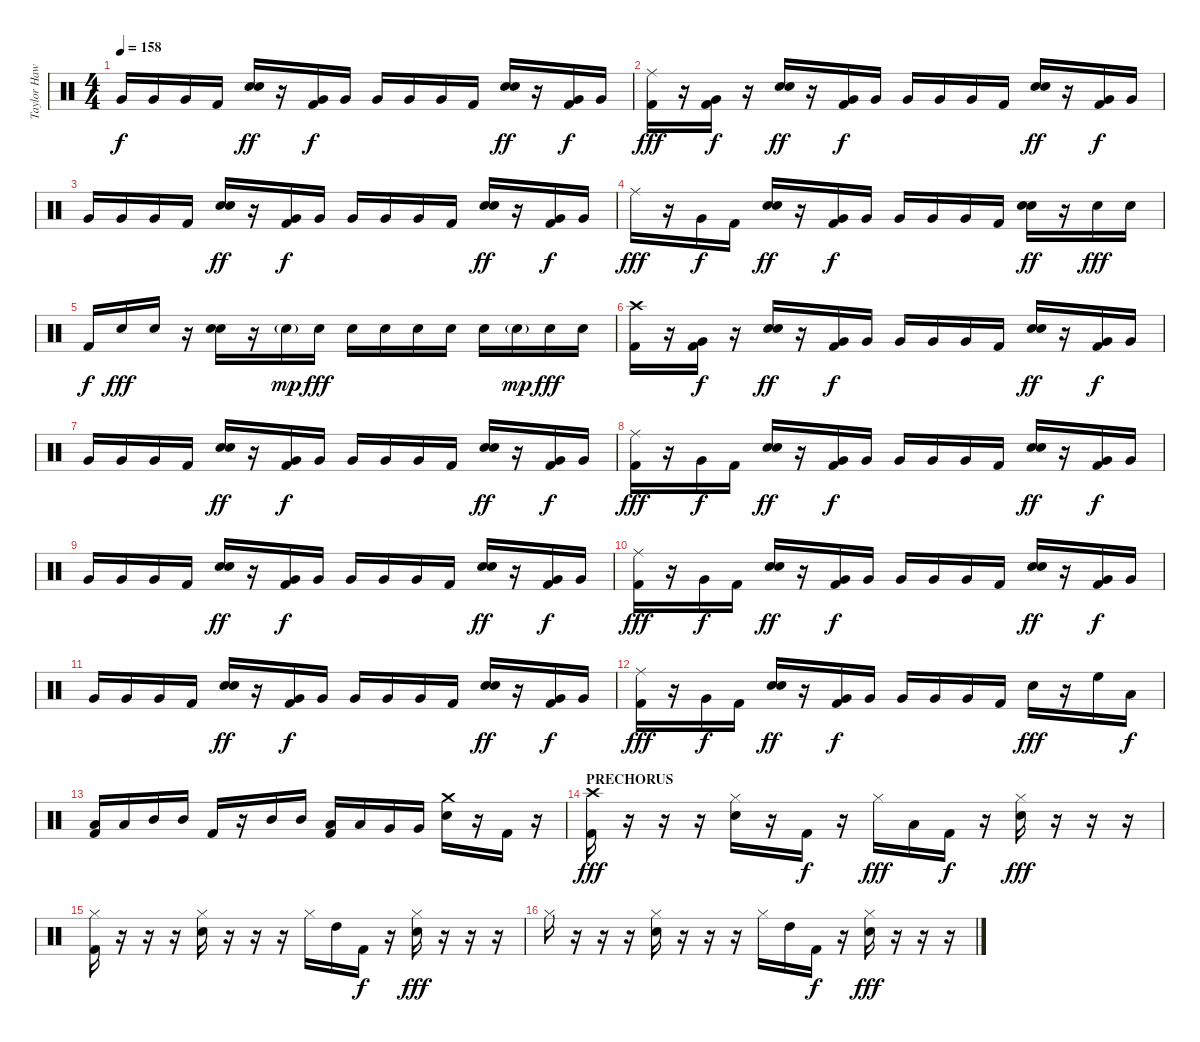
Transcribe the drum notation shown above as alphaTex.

\track ("Taylor Hawkins (Drums)" "Taylor Haw") {instrument percussion}
\staff {score}
\articulation defaults
\ts (4 4)
\tempo 158
\clef neutral
\ks c "Very Low Tom (hit)".16{dy f} "Very Low Tom (hit)".16 "Very Low Tom (hit)".16 "Kick (hit) 2".16
("Electric Snare (hit)" "Electric Snare (hit)").16{bu 120 dy ff} r.16 ("Very Low Tom (hit)" "Kick (hit) 2").16{dy f} "Very Low Tom (hit)".16 "Very Low Tom (hit)".16 "Very Low Tom (hit)".16 "Very Low Tom (hit)".16 "Kick (hit) 2".16 ("Electric Snare (hit)" "Electric Snare (hit)").16{bu 120 dy ff} r.16 ("Very Low Tom (hit)" "Kick (hit) 2").16{dy f} "Very Low Tom (hit)".16 |
("Ride (middle)" "Kick (hit) 2").16{dy fff} r.16 ("Very Low Tom (hit)" "Kick (hit) 2").16{dy f} r.16 ("Electric Snare (hit)" "Electric Snare (hit)").16{bu 120 dy ff} r.16 ("Very Low Tom (hit)" "Kick (hit) 2").16{dy f} "Very Low Tom (hit)".16 "Very Low Tom (hit)".16 "Very Low Tom (hit)".16 "Very Low Tom (hit)".16 "Kick (hit) 2".16 ("Electric Snare (hit)" "Electric Snare (hit)").16{bu 120 dy ff} r.16 ("Very Low Tom (hit)" "Kick (hit) 2").16{dy f} "Very Low Tom (hit)".16 |
"Very Low Tom (hit)".16 "Very Low Tom (hit)".16 "Very Low Tom (hit)".16 "Kick (hit) 2".16 ("Electric Snare (hit)" "Electric Snare (hit)").16{bu 120 dy ff} r.16 ("Very Low Tom (hit)" "Kick (hit) 2").16{dy f} "Very Low Tom (hit)".16 "Very Low Tom (hit)".16 "Very Low Tom (hit)".16 "Very Low Tom (hit)".16 "Kick (hit) 2".16 ("Electric Snare (hit)" "Electric Snare (hit)").16{bu 120 dy ff} r.16 ("Very Low Tom (hit)" "Kick (hit) 2").16{dy f} "Very Low Tom (hit)".16 |
"Ride (middle)".16{dy fff} r.16 "Very Low Tom (hit)".16{dy f} "Kick (hit) 2".16 ("Electric Snare (hit)" "Electric Snare (hit)").16{bu 120 dy ff} r.16 ("Very Low Tom (hit)" "Kick (hit) 2").16{dy f} "Very Low Tom (hit)".16 "Very Low Tom (hit)".16 "Very Low Tom (hit)".16 "Very Low Tom (hit)".16 "Kick (hit) 2".16 ("Electric Snare (hit)" "Electric Snare (hit)").16{bu 120 dy ff} r.16 "Electric Snare (hit)".16{dy fff} "Electric Snare (hit)".16 |
"Kick (hit) 2".16{dy f} "Electric Snare (hit)".16{dy fff} "Electric Snare (hit)".16 r.16 ("Electric Snare (hit)" "Electric Snare (hit)").16{bu 120} r.16 "Electric Snare (hit)"{g}.16{dy mp} "Electric Snare (hit)".16{dy fff} "Electric Snare (hit)".16 "Electric Snare (hit)".16 "Electric Snare (hit)".16 "Electric Snare (hit)".16 "Electric Snare (hit)".16 "Electric Snare (hit)"{g}.16{dy mp} "Electric Snare (hit)".16{dy fff} "Electric Snare (hit)".16 |
("Crash high (hit)" "Kick (hit) 2").16 r.16 ("Very Low Tom (hit)" "Kick (hit) 2").16{dy f} r.16 ("Electric Snare (hit)" "Electric Snare (hit)").16{bu 120 dy ff} r.16 ("Very Low Tom (hit)" "Kick (hit) 2").16{dy f} "Very Low Tom (hit)".16 "Very Low Tom (hit)".16 "Very Low Tom (hit)".16 "Very Low Tom (hit)".16 "Kick (hit) 2".16 ("Electric Snare (hit)" "Electric Snare (hit)").16{bu 120 dy ff} r.16 ("Very Low Tom (hit)" "Kick (hit) 2").16{dy f} "Very Low Tom (hit)".16 |
"Very Low Tom (hit)".16 "Very Low Tom (hit)".16 "Very Low Tom (hit)".16 "Kick (hit) 2".16 ("Electric Snare (hit)" "Electric Snare (hit)").16{bu 120 dy ff} r.16 ("Very Low Tom (hit)" "Kick (hit) 2").16{dy f} "Very Low Tom (hit)".16 "Very Low Tom (hit)".16 "Very Low Tom (hit)".16 "Very Low Tom (hit)".16 "Kick (hit) 2".16 ("Electric Snare (hit)" "Electric Snare (hit)").16{bu 120 dy ff} r.16 ("Very Low Tom (hit)" "Kick (hit) 2").16{dy f} "Very Low Tom (hit)".16 |
("Ride (middle)" "Kick (hit) 2").16{dy fff} r.16 "Very Low Tom (hit)".16{dy f} "Kick (hit) 2".16 ("Electric Snare (hit)" "Electric Snare (hit)").16{bu 120 dy ff} r.16 ("Very Low Tom (hit)" "Kick (hit) 2").16{dy f} "Very Low Tom (hit)".16 "Very Low Tom (hit)".16 "Very Low Tom (hit)".16 "Very Low Tom (hit)".16 "Kick (hit) 2".16 ("Electric Snare (hit)" "Electric Snare (hit)").16{bu 120 dy ff} r.16 ("Very Low Tom (hit)" "Kick (hit) 2").16{dy f} "Very Low Tom (hit)".16 |
"Very Low Tom (hit)".16 "Very Low Tom (hit)".16 "Very Low Tom (hit)".16 "Kick (hit) 2".16 ("Electric Snare (hit)" "Electric Snare (hit)").16{bu 120 dy ff} r.16 ("Very Low Tom (hit)" "Kick (hit) 2").16{dy f} "Very Low Tom (hit)".16 "Very Low Tom (hit)".16 "Very Low Tom (hit)".16 "Very Low Tom (hit)".16 "Kick (hit) 2".16 ("Electric Snare (hit)" "Electric Snare (hit)").16{bu 120 dy ff} r.16 ("Very Low Tom (hit)" "Kick (hit) 2").16{dy f} "Very Low Tom (hit)".16 |
("Ride (middle)" "Kick (hit) 2").16{dy fff} r.16 "Very Low Tom (hit)".16{dy f} "Kick (hit) 2".16 ("Electric Snare (hit)" "Electric Snare (hit)").16{bu 120 dy ff} r.16 ("Very Low Tom (hit)" "Kick (hit) 2").16{dy f} "Very Low Tom (hit)".16 "Very Low Tom (hit)".16 "Very Low Tom (hit)".16 "Very Low Tom (hit)".16 "Kick (hit) 2".16 ("Electric Snare (hit)" "Electric Snare (hit)").16{bu 120 dy ff} r.16 ("Very Low Tom (hit)" "Kick (hit) 2").16{dy f} "Very Low Tom (hit)".16 |
"Very Low Tom (hit)".16 "Very Low Tom (hit)".16 "Very Low Tom (hit)".16 "Kick (hit) 2".16 ("Electric Snare (hit)" "Electric Snare (hit)").16{bu 120 dy ff} r.16 ("Very Low Tom (hit)" "Kick (hit) 2").16{dy f} "Very Low Tom (hit)".16 "Very Low Tom (hit)".16 "Very Low Tom (hit)".16 "Very Low Tom (hit)".16 "Kick (hit) 2".16 ("Electric Snare (hit)" "Electric Snare (hit)").16{bu 120 dy ff} r.16 ("Very Low Tom (hit)" "Kick (hit) 2").16{dy f} "Very Low Tom (hit)".16 |
("Ride (middle)" "Kick (hit) 2").16{dy fff} r.16 "Very Low Tom (hit)".16{dy f} "Kick (hit) 2".16 ("Electric Snare (hit)" "Electric Snare (hit)").16{bu 120 dy ff} r.16 ("Very Low Tom (hit)" "Kick (hit) 2").16{dy f} "Very Low Tom (hit)".16 "Very Low Tom (hit)".16 "Very Low Tom (hit)".16 "Very Low Tom (hit)".16 "Kick (hit) 2".16 "Electric Snare (hit)".16{dy fff} r.16 "High Floor Tom (hit)".16 "Low Tom (hit)".16{dy f} |
("Low Tom (hit)" "Kick (hit) 2").16 "Low Tom (hit)".16 "Mid Tom (hit)".16 "Mid Tom (hit)".16 "Kick (hit) 2".16 r.16 "Mid Tom (hit)".16 "Mid Tom (hit)".16 ("Low Tom (hit)" "Kick (hit) 2").16 "Low Tom (hit)".16 "Very Low Tom (hit)".16 "Very Low Tom (hit)".16 ("Crash medium (hit)" "Electric Snare (hit)").16 r.16 "Kick (hit) 2".16 r.16 |
\section ("" "PRECHORUS")
("Crash high (hit)" "Kick (hit) 2").16{dy fff} r.16 r.16 r.16 ("Hi-Hat (closed)" "Electric Snare (hit)").16 r.16 "Kick (hit) 2".16{dy f} r.16 "Hi-Hat (closed)".16{dy fff} "Low Tom (hit)".16 "Kick (hit) 2".16{dy f} r.16 ("Hi-Hat (closed)" "Electric Snare (hit)").16{dy fff} r.16 r.16 r.16 |
("Hi-Hat (closed)" "Kick (hit) 2").16 r.16 r.16 r.16 ("Hi-Hat (closed)" "Electric Snare (hit)").16 r.16 r.16 r.16 "Hi-Hat (closed)".16 "High Tom (hit)".16 "Kick (hit) 2".16{dy f} r.16 ("Hi-Hat (closed)" "Electric Snare (hit)").16{dy fff} r.16 r.16 r.16 |
"Hi-Hat (closed)".16 r.16 r.16 r.16 ("Hi-Hat (closed)" "Electric Snare (hit)").16 r.16 r.16 r.16 "Hi-Hat (closed)".16 "High Tom (hit)".16 "Kick (hit) 2".16{dy f} r.16 ("Hi-Hat (closed)" "Electric Snare (hit)").16{dy fff} r.16 r.16 r.16
